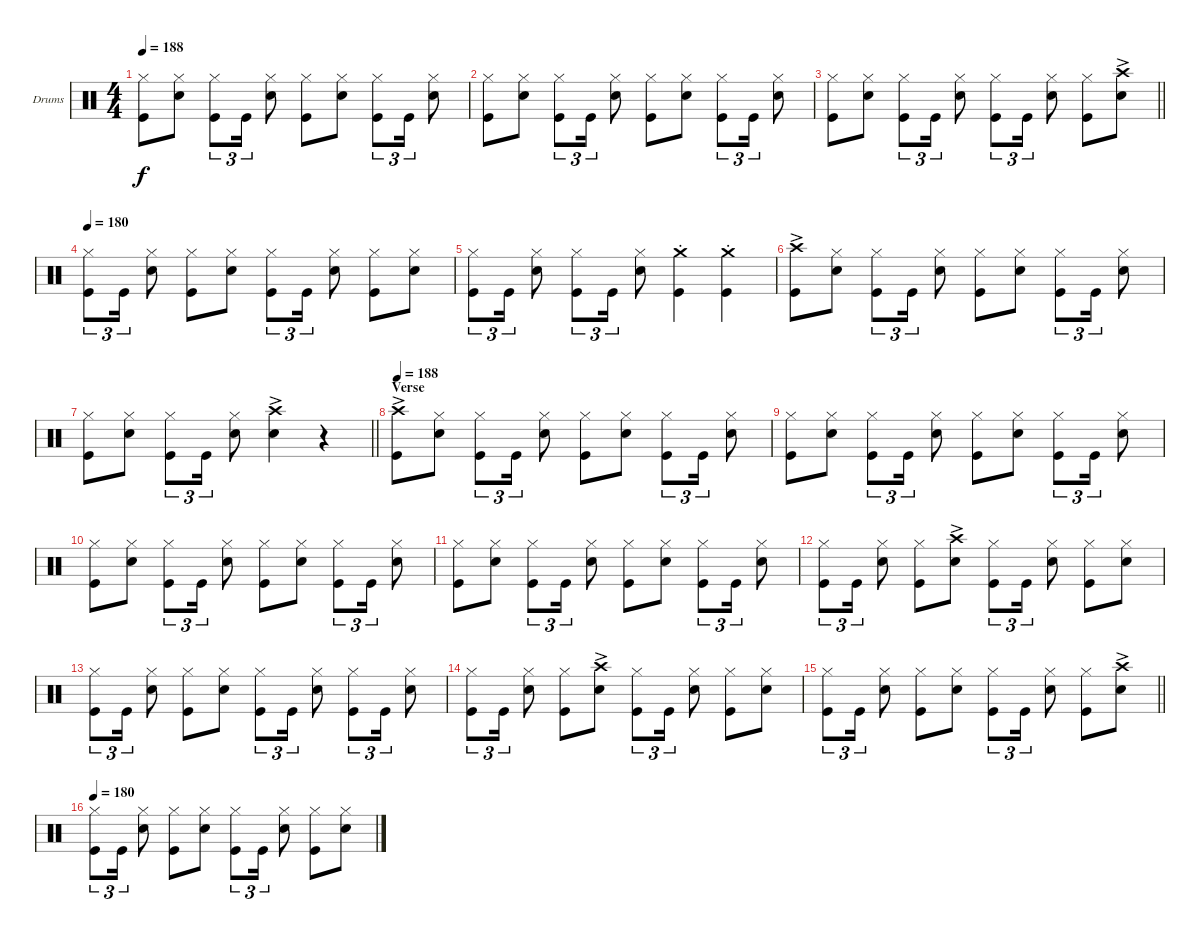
\bracketExtendMode groupsimilarinstruments
\firstSystemTrackNameOrientation horizontal
\otherSystemsTrackNameOrientation horizontal
\track ("Drums" "Drums") {instrument percussion}
\staff {score}
\articulation defaults
\ts (4 4)
\tempo 188
\clef neutral
\ks c
("Kick (hit)" "Hi-Hat (closed)").8{dy f} ("Snare (hit) 2" "Hi-Hat (closed)").8 ("Kick (hit)" "Hi-Hat (closed)").8{tu (3 2)} "Kick (hit)".16{tu (3 2)} ("Snare (hit) 2" "Hi-Hat (closed)").8 ("Kick (hit)" "Hi-Hat (closed)").8 ("Snare (hit) 2" "Hi-Hat (closed)").8 ("Kick (hit)" "Hi-Hat (closed)").8{tu (3 2)} "Kick (hit)".16{tu (3 2)} ("Snare (hit) 2" "Hi-Hat (closed)").8 |
("Kick (hit)" "Hi-Hat (closed)").8 ("Snare (hit) 2" "Hi-Hat (closed)").8 ("Kick (hit)" "Hi-Hat (closed)").8{tu (3 2)} "Kick (hit)".16{tu (3 2)} ("Snare (hit) 2" "Hi-Hat (closed)").8 ("Kick (hit)" "Hi-Hat (closed)").8 ("Snare (hit) 2" "Hi-Hat (closed)").8 ("Kick (hit)" "Hi-Hat (closed)").8{tu (3 2)} "Kick (hit)".16{tu (3 2)} ("Snare (hit) 2" "Hi-Hat (closed)").8 |
\barLineRight lightlight
("Kick (hit)" "Hi-Hat (closed)").8 ("Snare (hit) 2" "Hi-Hat (closed)").8 ("Kick (hit)" "Hi-Hat (closed)").8{tu (3 2)} "Kick (hit)".16{tu (3 2)} ("Snare (hit) 2" "Hi-Hat (closed)").8 ("Kick (hit)" "Hi-Hat (closed)").8{tu (3 2)} "Kick (hit)".16{tu (3 2)} ("Snare (hit) 2" "Hi-Hat (closed)").8 ("Kick (hit)" "Hi-Hat (closed)").8 ("Snare (hit) 2"{ac} "Crash high (hit)"{ac}).8 |
\tempo 180
("Kick (hit)" "Hi-Hat (closed)").8{tu (3 2)} "Kick (hit)".16{tu (3 2)} ("Snare (hit) 2" "Hi-Hat (closed)").8 ("Kick (hit)" "Hi-Hat (closed)").8 ("Snare (hit) 2" "Hi-Hat (closed)").8 ("Kick (hit)" "Hi-Hat (closed)").8{tu (3 2)} "Kick (hit)".16{tu (3 2)} ("Snare (hit) 2" "Hi-Hat (closed)").8 ("Kick (hit)" "Hi-Hat (closed)").8 ("Snare (hit) 2" "Hi-Hat (closed)").8 |
("Kick (hit)" "Hi-Hat (closed)").8{tu (3 2)} "Kick (hit)".16{tu (3 2)} ("Snare (hit) 2" "Hi-Hat (closed)").8 ("Kick (hit)" "Hi-Hat (closed)").8{tu (3 2)} "Kick (hit)".16{tu (3 2)} ("Snare (hit) 2" "Hi-Hat (closed)").8 ("Kick (hit)"{st} "Crash medium (hit)"{st}).4 ("Kick (hit)"{st} "Crash medium (hit)"{st}).4 |
("Kick (hit)" "Crash high (hit)"{ac}).8 ("Snare (hit) 2" "Hi-Hat (closed)").8 ("Kick (hit)" "Hi-Hat (closed)").8{tu (3 2)} "Kick (hit)".16{tu (3 2)} ("Snare (hit) 2" "Hi-Hat (closed)").8 ("Kick (hit)" "Hi-Hat (closed)").8 ("Snare (hit) 2" "Hi-Hat (closed)").8 ("Kick (hit)" "Hi-Hat (closed)").8{tu (3 2)} "Kick (hit)".16{tu (3 2)} ("Snare (hit) 2" "Hi-Hat (closed)").8 |
\barLineRight lightlight
("Kick (hit)" "Hi-Hat (closed)").8 ("Snare (hit) 2" "Hi-Hat (closed)").8 ("Kick (hit)" "Hi-Hat (closed)").8{tu (3 2)} "Kick (hit)".16{tu (3 2)} ("Snare (hit) 2" "Hi-Hat (closed)").8 ("Snare (hit) 2"{ac} "Crash high (hit)"{ac}).4 r.4 |
\section ("" "Verse")
\tempo 188
("Kick (hit)" "Crash high (hit)"{ac}).8 ("Snare (hit) 2" "Hi-Hat (closed)").8 ("Kick (hit)" "Hi-Hat (closed)").8{tu (3 2)} "Kick (hit)".16{tu (3 2)} ("Snare (hit) 2" "Hi-Hat (closed)").8 ("Kick (hit)" "Hi-Hat (closed)").8 ("Snare (hit) 2" "Hi-Hat (closed)").8 ("Kick (hit)" "Hi-Hat (closed)").8{tu (3 2)} "Kick (hit)".16{tu (3 2)} ("Snare (hit) 2" "Hi-Hat (closed)").8 |
("Kick (hit)" "Hi-Hat (closed)").8 ("Snare (hit) 2" "Hi-Hat (closed)").8 ("Kick (hit)" "Hi-Hat (closed)").8{tu (3 2)} "Kick (hit)".16{tu (3 2)} ("Snare (hit) 2" "Hi-Hat (closed)").8 ("Kick (hit)" "Hi-Hat (closed)").8 ("Snare (hit) 2" "Hi-Hat (closed)").8 ("Kick (hit)" "Hi-Hat (closed)").8{tu (3 2)} "Kick (hit)".16{tu (3 2)} ("Snare (hit) 2" "Hi-Hat (closed)").8 |
("Kick (hit)" "Hi-Hat (closed)").8 ("Snare (hit) 2" "Hi-Hat (closed)").8 ("Kick (hit)" "Hi-Hat (closed)").8{tu (3 2)} "Kick (hit)".16{tu (3 2)} ("Snare (hit) 2" "Hi-Hat (closed)").8 ("Kick (hit)" "Hi-Hat (closed)").8 ("Snare (hit) 2" "Hi-Hat (closed)").8 ("Kick (hit)" "Hi-Hat (closed)").8{tu (3 2)} "Kick (hit)".16{tu (3 2)} ("Snare (hit) 2" "Hi-Hat (closed)").8 |
("Kick (hit)" "Hi-Hat (closed)").8 ("Snare (hit) 2" "Hi-Hat (closed)").8 ("Kick (hit)" "Hi-Hat (closed)").8{tu (3 2)} "Kick (hit)".16{tu (3 2)} ("Snare (hit) 2" "Hi-Hat (closed)").8 ("Kick (hit)" "Hi-Hat (closed)").8 ("Snare (hit) 2" "Hi-Hat (closed)").8 ("Kick (hit)" "Hi-Hat (closed)").8{tu (3 2)} "Kick (hit)".16{tu (3 2)} ("Snare (hit) 2" "Hi-Hat (closed)").8 |
("Kick (hit)" "Hi-Hat (closed)").8{tu (3 2)} "Kick (hit)".16{tu (3 2)} ("Snare (hit) 2" "Hi-Hat (closed)").8 ("Kick (hit)" "Hi-Hat (closed)").8 ("Snare (hit) 2"{ac} "Crash high (hit)"{ac}).8 ("Kick (hit)" "Hi-Hat (closed)").8{tu (3 2)} "Kick (hit)".16{tu (3 2)} ("Snare (hit) 2" "Hi-Hat (closed)").8 ("Kick (hit)" "Hi-Hat (closed)").8 ("Snare (hit) 2" "Hi-Hat (closed)").8 |
("Kick (hit)" "Hi-Hat (closed)").8{tu (3 2)} "Kick (hit)".16{tu (3 2)} ("Snare (hit) 2" "Hi-Hat (closed)").8 ("Kick (hit)" "Hi-Hat (closed)").8 ("Snare (hit) 2" "Hi-Hat (closed)").8 ("Kick (hit)" "Hi-Hat (closed)").8{tu (3 2)} "Kick (hit)".16{tu (3 2)} ("Snare (hit) 2" "Hi-Hat (closed)").8 ("Kick (hit)" "Hi-Hat (closed)").8{tu (3 2)} "Kick (hit)".16{tu (3 2)} ("Snare (hit) 2" "Hi-Hat (closed)").8 |
("Kick (hit)" "Hi-Hat (closed)").8{tu (3 2)} "Kick (hit)".16{tu (3 2)} ("Snare (hit) 2" "Hi-Hat (closed)").8 ("Kick (hit)" "Hi-Hat (closed)").8 ("Snare (hit) 2"{ac} "Crash high (hit)"{ac}).8 ("Kick (hit)" "Hi-Hat (closed)").8{tu (3 2)} "Kick (hit)".16{tu (3 2)} ("Snare (hit) 2" "Hi-Hat (closed)").8 ("Kick (hit)" "Hi-Hat (closed)").8 ("Snare (hit) 2" "Hi-Hat (closed)").8 |
\barLineRight lightlight
("Kick (hit)" "Hi-Hat (closed)").8{tu (3 2)} "Kick (hit)".16{tu (3 2)} ("Snare (hit) 2" "Hi-Hat (closed)").8 ("Kick (hit)" "Hi-Hat (closed)").8 ("Snare (hit) 2" "Hi-Hat (closed)").8 ("Kick (hit)" "Hi-Hat (closed)").8{tu (3 2)} "Kick (hit)".16{tu (3 2)} ("Snare (hit) 2" "Hi-Hat (closed)").8 ("Kick (hit)" "Hi-Hat (closed)").8 ("Snare (hit) 2"{ac} "Crash high (hit)"{ac}).8 |
\tempo 180
("Kick (hit)" "Hi-Hat (closed)").8{tu (3 2)} "Kick (hit)".16{tu (3 2)} ("Snare (hit) 2" "Hi-Hat (closed)").8 ("Kick (hit)" "Hi-Hat (closed)").8 ("Snare (hit) 2" "Hi-Hat (closed)").8 ("Kick (hit)" "Hi-Hat (closed)").8{tu (3 2)} "Kick (hit)".16{tu (3 2)} ("Snare (hit) 2" "Hi-Hat (closed)").8 ("Kick (hit)" "Hi-Hat (closed)").8 ("Snare (hit) 2" "Hi-Hat (closed)").8
